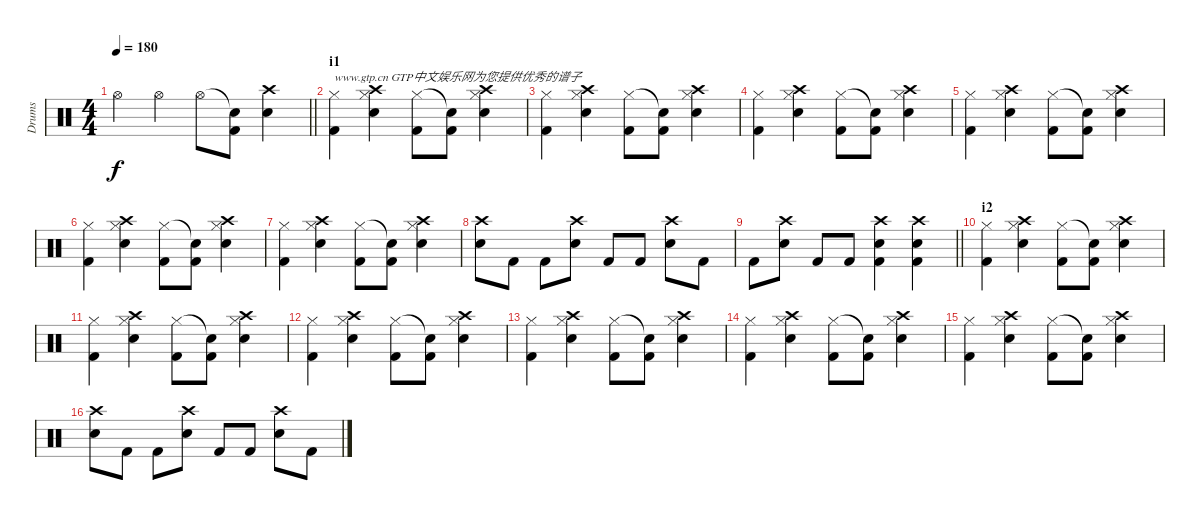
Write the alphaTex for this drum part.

\track ("Drums" "Drums") {instrument percussion}
\staff {score}
\articulation defaults
\ts (4 4)
\tempo 180
\clef neutral
\barLineRight lightlight
\ks c "Hi-Hat (open)".4{dy f} "Hi-Hat (open)".4 "Hi-Hat (open)".8
("Snare (hit)"{t} "Kick (hit) 2").8 ("Crash high (hit)" "Snare (hit) 2").4 |
\section ("" "i1")
("Hi-Hat (closed)" "Kick (hit) 2").4{txt "www.gtp.cn GTP中文娱乐网为您提供优秀的谱子"} ("Crash high (hit)" "Hi-Hat (closed)" "Snare (hit) 2").4 ("Hi-Hat (closed)" "Kick (hit) 2").8 ("Snare (hit)"{t} "Kick (hit) 2").8 ("Crash high (hit)" "Hi-Hat (closed)" "Snare (hit) 2").4 |
("Hi-Hat (closed)" "Kick (hit) 2").4 ("Crash high (hit)" "Hi-Hat (closed)" "Snare (hit) 2").4 ("Hi-Hat (closed)" "Kick (hit) 2").8 ("Snare (hit)"{t} "Kick (hit) 2").8 ("Crash high (hit)" "Hi-Hat (closed)" "Snare (hit) 2").4 |
("Hi-Hat (closed)" "Kick (hit) 2").4 ("Crash high (hit)" "Hi-Hat (closed)" "Snare (hit) 2").4 ("Hi-Hat (closed)" "Kick (hit) 2").8 ("Snare (hit)"{t} "Kick (hit) 2").8 ("Crash high (hit)" "Hi-Hat (closed)" "Snare (hit) 2").4 |
("Hi-Hat (closed)" "Kick (hit) 2").4 ("Crash high (hit)" "Hi-Hat (closed)" "Snare (hit) 2").4 ("Hi-Hat (closed)" "Kick (hit) 2").8 ("Snare (hit)"{t} "Kick (hit) 2").8 ("Crash high (hit)" "Hi-Hat (closed)" "Snare (hit) 2").4 |
("Hi-Hat (closed)" "Kick (hit) 2").4 ("Crash high (hit)" "Hi-Hat (closed)" "Snare (hit) 2").4 ("Hi-Hat (closed)" "Kick (hit) 2").8 ("Snare (hit)"{t} "Kick (hit) 2").8 ("Crash high (hit)" "Hi-Hat (closed)" "Snare (hit) 2").4 |
("Hi-Hat (closed)" "Kick (hit) 2").4 ("Crash high (hit)" "Hi-Hat (closed)" "Snare (hit) 2").4 ("Hi-Hat (closed)" "Kick (hit) 2").8 ("Snare (hit)"{t} "Kick (hit) 2").8 ("Crash high (hit)" "Hi-Hat (closed)" "Snare (hit) 2").4 |
("Crash high (hit)" "Snare (hit) 2").8 "Kick (hit) 2".8 "Kick (hit) 2".8 ("Crash high (hit)" "Snare (hit) 2").8 "Kick (hit) 2".8 "Kick (hit) 2".8 ("Crash high (hit)" "Snare (hit) 2").8 "Kick (hit) 2".8 |
\barLineRight lightlight "Kick (hit) 2".8
("Crash high (hit)" "Snare (hit) 2").8 "Kick (hit) 2".8 "Kick (hit) 2".8 ("Crash high (hit)" "Snare (hit) 2" "Kick (hit) 2").4 ("Crash high (hit)" "Snare (hit) 2" "Kick (hit) 2").4 |
\section ("" "i2")
("Hi-Hat (closed)" "Kick (hit) 2").4 ("Crash high (hit)" "Hi-Hat (closed)" "Snare (hit) 2").4 ("Hi-Hat (closed)" "Kick (hit) 2").8 ("Snare (hit)"{t} "Kick (hit) 2").8 ("Crash high (hit)" "Hi-Hat (closed)" "Snare (hit) 2").4 |
("Hi-Hat (closed)" "Kick (hit) 2").4 ("Crash high (hit)" "Hi-Hat (closed)" "Snare (hit) 2").4 ("Hi-Hat (closed)" "Kick (hit) 2").8 ("Snare (hit)"{t} "Kick (hit) 2").8 ("Crash high (hit)" "Hi-Hat (closed)" "Snare (hit) 2").4 |
("Hi-Hat (closed)" "Kick (hit) 2").4 ("Crash high (hit)" "Hi-Hat (closed)" "Snare (hit) 2").4 ("Hi-Hat (closed)" "Kick (hit) 2").8 ("Snare (hit)"{t} "Kick (hit) 2").8 ("Crash high (hit)" "Hi-Hat (closed)" "Snare (hit) 2").4 |
("Hi-Hat (closed)" "Kick (hit) 2").4 ("Crash high (hit)" "Hi-Hat (closed)" "Snare (hit) 2").4 ("Hi-Hat (closed)" "Kick (hit) 2").8 ("Snare (hit)"{t} "Kick (hit) 2").8 ("Crash high (hit)" "Hi-Hat (closed)" "Snare (hit) 2").4 |
("Hi-Hat (closed)" "Kick (hit) 2").4 ("Crash high (hit)" "Hi-Hat (closed)" "Snare (hit) 2").4 ("Hi-Hat (closed)" "Kick (hit) 2").8 ("Snare (hit)"{t} "Kick (hit) 2").8 ("Crash high (hit)" "Hi-Hat (closed)" "Snare (hit) 2").4 |
("Hi-Hat (closed)" "Kick (hit) 2").4 ("Crash high (hit)" "Hi-Hat (closed)" "Snare (hit) 2").4 ("Hi-Hat (closed)" "Kick (hit) 2").8 ("Snare (hit)"{t} "Kick (hit) 2").8 ("Crash high (hit)" "Hi-Hat (closed)" "Snare (hit) 2").4 |
("Crash high (hit)" "Snare (hit) 2").8 "Kick (hit) 2".8 "Kick (hit) 2".8 ("Crash high (hit)" "Snare (hit) 2").8 "Kick (hit) 2".8 "Kick (hit) 2".8 ("Crash high (hit)" "Snare (hit) 2").8 "Kick (hit) 2".8
